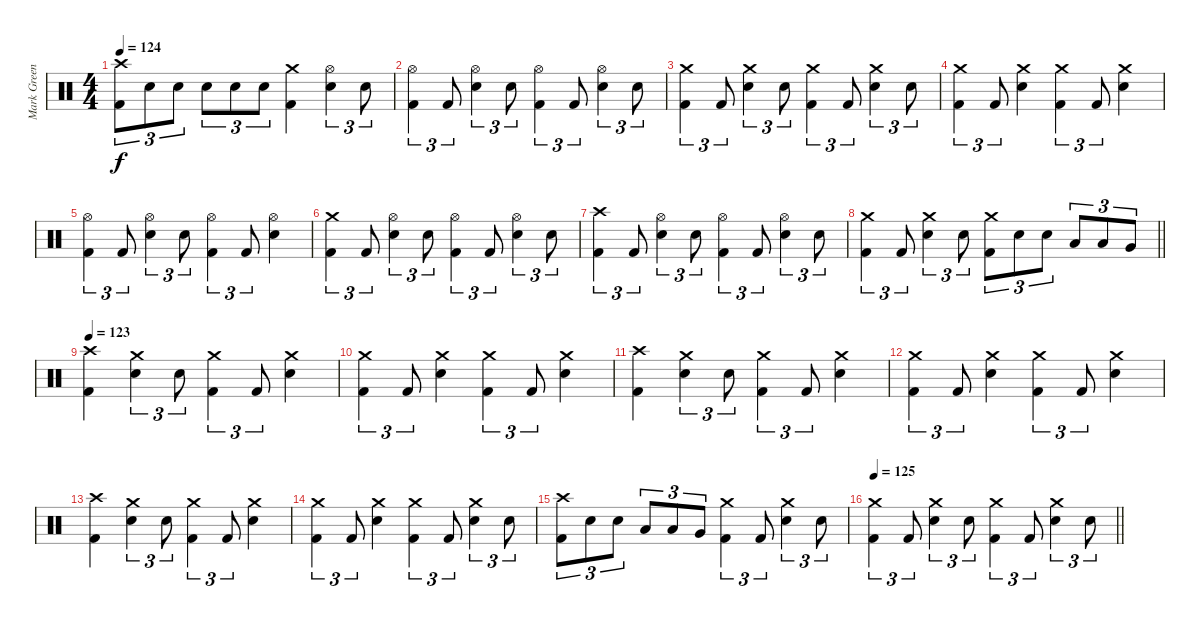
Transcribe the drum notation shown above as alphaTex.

\track ("Mark Greening" "Mark Green") {instrument percussion}
\staff {score}
\articulation defaults
\ts (4 4)
\tempo 124
\clef neutral
\ks c
("Crash high (hit)" "Kick (hit) 2").8{tu (3 2) dy f} "Electric Snare (hit)".8{tu (3 2)} "Electric Snare (hit)".8{tu (3 2)} "Electric Snare (hit)".8{tu (3 2)} "Electric Snare (hit)".8{tu (3 2)} "Electric Snare (hit)".8{tu (3 2)} ("Crash medium (hit)" "Kick (hit) 2").4 ("Hi-Hat (open)" "Electric Snare (hit)").4{tu (3 2)} "Electric Snare (hit)".8{tu (3 2)} |
("Hi-Hat (open)" "Kick (hit) 2").4{tu (3 2)} "Kick (hit) 2".8{tu (3 2)} ("Hi-Hat (open)" "Electric Snare (hit)").4{tu (3 2)} "Electric Snare (hit)".8{tu (3 2)} ("Hi-Hat (open)" "Kick (hit) 2").4{tu (3 2)} "Kick (hit) 2".8{tu (3 2)} ("Hi-Hat (open)" "Electric Snare (hit)").4{tu (3 2)} "Electric Snare (hit)".8{tu (3 2)} |
("Crash medium (hit)" "Kick (hit) 2").4{tu (3 2)} "Kick (hit) 2".8{tu (3 2)} ("Crash medium (hit)" "Electric Snare (hit)").4{tu (3 2)} "Electric Snare (hit)".8{tu (3 2)} ("Crash medium (hit)" "Kick (hit) 2").4{tu (3 2)} "Kick (hit) 2".8{tu (3 2)} ("Crash medium (hit)" "Electric Snare (hit)").4{tu (3 2)} "Electric Snare (hit)".8{tu (3 2)} |
("Crash medium (hit)" "Kick (hit) 2").4{tu (3 2)} "Kick (hit) 2".8{tu (3 2)} ("Crash medium (hit)" "Electric Snare (hit)").4 ("Crash medium (hit)" "Kick (hit) 2").4{tu (3 2)} "Kick (hit) 2".8{tu (3 2)} ("Crash medium (hit)" "Electric Snare (hit)").4 |
("Hi-Hat (open)" "Kick (hit) 2").4{tu (3 2)} "Kick (hit) 2".8{tu (3 2)} ("Hi-Hat (open)" "Electric Snare (hit)").4{tu (3 2)} "Electric Snare (hit)".8{tu (3 2)} ("Hi-Hat (open)" "Kick (hit) 2").4{tu (3 2)} "Kick (hit) 2".8{tu (3 2)} ("Hi-Hat (open)" "Electric Snare (hit)").4 |
("Crash medium (hit)" "Kick (hit) 2").4{tu (3 2)} "Kick (hit) 2".8{tu (3 2)} ("Hi-Hat (open)" "Electric Snare (hit)").4{tu (3 2)} "Electric Snare (hit)".8{tu (3 2)} ("Hi-Hat (open)" "Kick (hit) 2").4{tu (3 2)} "Kick (hit) 2".8{tu (3 2)} ("Hi-Hat (open)" "Electric Snare (hit)").4{tu (3 2)} "Electric Snare (hit)".8{tu (3 2)} |
("Crash high (hit)" "Kick (hit) 2").4{tu (3 2)} "Kick (hit) 2".8{tu (3 2)} ("Hi-Hat (open)" "Electric Snare (hit)").4{tu (3 2)} "Electric Snare (hit)".8{tu (3 2)} ("Hi-Hat (open)" "Kick (hit) 2").4{tu (3 2)} "Kick (hit) 2".8{tu (3 2)} ("Hi-Hat (open)" "Electric Snare (hit)").4{tu (3 2)} "Electric Snare (hit)".8{tu (3 2)} |
\barLineRight lightlight
("Crash medium (hit)" "Kick (hit) 2").4{tu (3 2)} "Kick (hit) 2".8{tu (3 2)} ("Crash medium (hit)" "Electric Snare (hit)").4{tu (3 2)} "Electric Snare (hit)".8{tu (3 2)} ("Crash medium (hit)" "Kick (hit) 2").8{tu (3 2)} "Electric Snare (hit)".8{tu (3 2)} "Electric Snare (hit)".8{tu (3 2)} "Low Tom (hit)".8{tu (3 2)} "Low Tom (hit)".8{tu (3 2)} "Very Low Tom (hit)".8{tu (3 2)} |
\section ("" "")
\tempo 123
("Crash high (hit)" "Kick (hit) 2").4 ("Crash medium (hit)" "Electric Snare (hit)").4{tu (3 2)} "Electric Snare (hit)".8{tu (3 2)} ("Crash medium (hit)" "Kick (hit) 2").4{tu (3 2)} "Kick (hit) 2".8{tu (3 2)} ("Crash medium (hit)" "Electric Snare (hit)").4 |
("Crash medium (hit)" "Kick (hit) 2").4{tu (3 2)} "Kick (hit) 2".8{tu (3 2)} ("Crash medium (hit)" "Electric Snare (hit)").4 ("Crash medium (hit)" "Kick (hit) 2").4{tu (3 2)} "Kick (hit) 2".8{tu (3 2)} ("Crash medium (hit)" "Electric Snare (hit)").4 |
("Crash high (hit)" "Kick (hit) 2").4 ("Crash medium (hit)" "Electric Snare (hit)").4{tu (3 2)} "Electric Snare (hit)".8{tu (3 2)} ("Crash medium (hit)" "Kick (hit) 2").4{tu (3 2)} "Kick (hit) 2".8{tu (3 2)} ("Crash medium (hit)" "Electric Snare (hit)").4 |
("Crash medium (hit)" "Kick (hit) 2").4{tu (3 2)} "Kick (hit) 2".8{tu (3 2)} ("Crash medium (hit)" "Electric Snare (hit)").4 ("Crash medium (hit)" "Kick (hit) 2").4{tu (3 2)} "Kick (hit) 2".8{tu (3 2)} ("Crash medium (hit)" "Electric Snare (hit)").4 |
("Crash high (hit)" "Kick (hit) 2").4 ("Crash medium (hit)" "Electric Snare (hit)").4{tu (3 2)} "Electric Snare (hit)".8{tu (3 2)} ("Crash medium (hit)" "Kick (hit) 2").4{tu (3 2)} "Kick (hit) 2".8{tu (3 2)} ("Crash medium (hit)" "Electric Snare (hit)").4 |
("Crash medium (hit)" "Kick (hit) 2").4{tu (3 2)} "Kick (hit) 2".8{tu (3 2)} ("Crash medium (hit)" "Electric Snare (hit)").4 ("Crash medium (hit)" "Kick (hit) 2").4{tu (3 2)} "Kick (hit) 2".8{tu (3 2)} ("Crash medium (hit)" "Electric Snare (hit)").4{tu (3 2)} "Electric Snare (hit)".8{tu (3 2)} |
("Crash high (hit)" "Kick (hit) 2").8{tu (3 2)} "Electric Snare (hit)".8{tu (3 2)} "Electric Snare (hit)".8{tu (3 2)} "Low Tom (hit)".8{tu (3 2)} "Low Tom (hit)".8{tu (3 2)} "Very Low Tom (hit)".8{tu (3 2)} ("Crash medium (hit)" "Kick (hit) 2").4{tu (3 2)} "Kick (hit) 2".8{tu (3 2)} ("Crash medium (hit)" "Electric Snare (hit)").4{tu (3 2)} "Electric Snare (hit)".8{tu (3 2)} |
\tempo 125
\barLineRight lightlight
("Crash medium (hit)" "Kick (hit) 2").4{tu (3 2)} "Kick (hit) 2".8{tu (3 2)} ("Crash medium (hit)" "Electric Snare (hit)").4{tu (3 2)} "Electric Snare (hit)".8{tu (3 2)} ("Crash medium (hit)" "Kick (hit) 2").4{tu (3 2)} "Kick (hit) 2".8{tu (3 2)} ("Crash medium (hit)" "Electric Snare (hit)").4{tu (3 2)} "Electric Snare (hit)".8{tu (3 2)}
